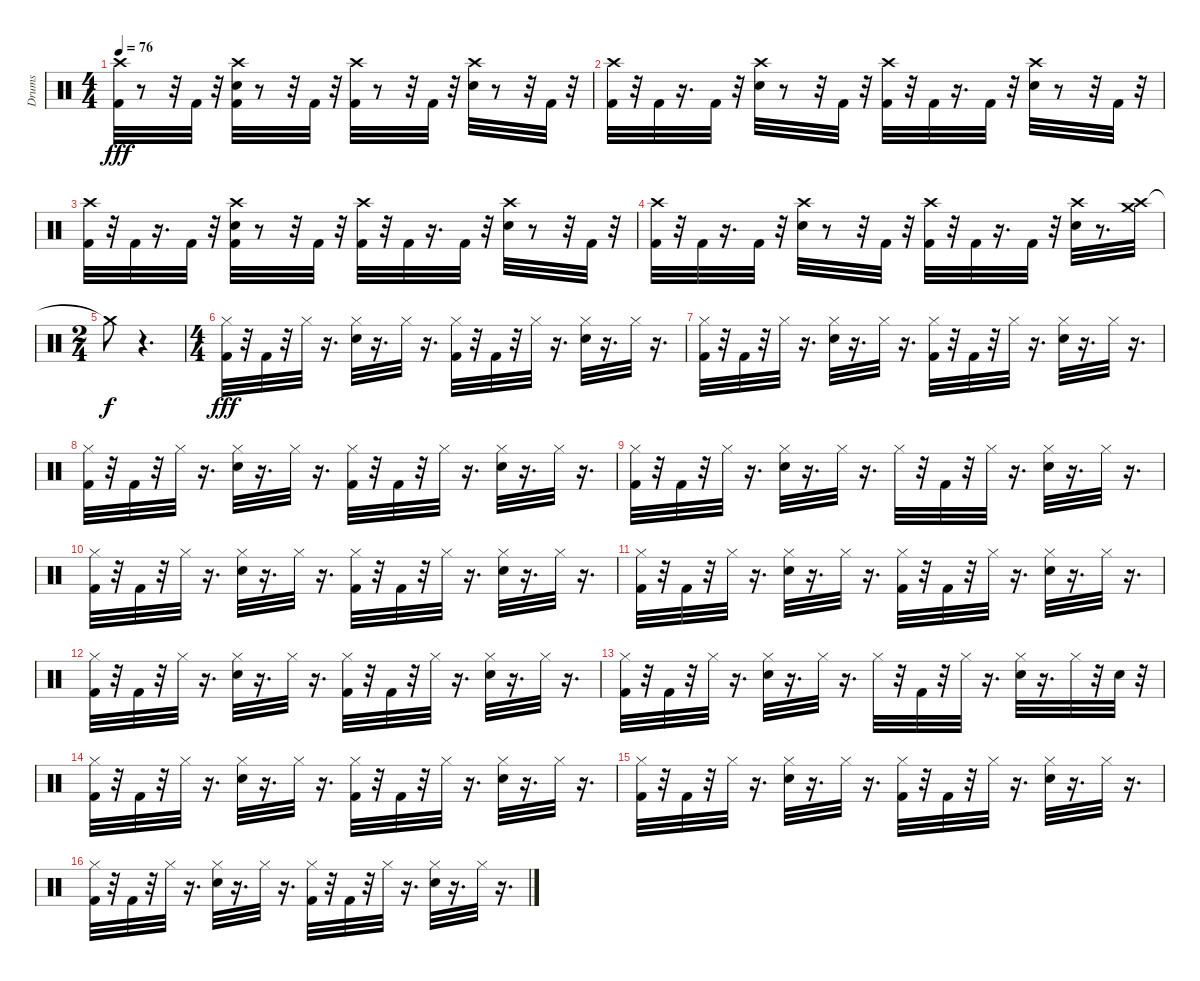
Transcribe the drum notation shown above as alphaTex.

\track ("Drums" "Drums") {instrument percussion}
\staff {score}
\articulation defaults
\ts (4 4)
\tempo 76
\clef neutral
\ks c
("Crash high (hit)" "Kick (hit) 2").32{dy fff} r.8 r.32 "Kick (hit) 2".32 r.32 ("Crash high (hit)" "Kick (hit) 2" "Electric Snare (hit)").32 r.8 r.32 "Kick (hit) 2".32 r.32 ("Crash high (hit)" "Kick (hit) 2").32 r.8 r.32 "Kick (hit) 2".32 r.32 ("Crash high (hit)" "Electric Snare (hit)").32 r.8 r.32 "Kick (hit) 2".32 r.32 |
("Crash high (hit)" "Kick (hit) 2").32 r.32 "Kick (hit) 2".32 r.16{d} "Kick (hit) 2".32 r.32 ("Crash high (hit)" "Electric Snare (hit)").32 r.8 r.32 "Kick (hit) 2".32 r.32 ("Crash high (hit)" "Kick (hit) 2").32 r.32 "Kick (hit) 2".32 r.16{d} "Kick (hit) 2".32 r.32 ("Crash high (hit)" "Electric Snare (hit)").32 r.8 r.32 "Kick (hit) 2".32 r.32 |
("Crash high (hit)" "Kick (hit) 2").32 r.32 "Kick (hit) 2".32 r.16{d} "Kick (hit) 2".32 r.32 ("Crash high (hit)" "Kick (hit) 2" "Electric Snare (hit)").32 r.8 r.32 "Kick (hit) 2".32 r.32 ("Crash high (hit)" "Kick (hit) 2").32 r.32 "Kick (hit) 2".32 r.16{d} "Kick (hit) 2".32 r.32 ("Crash high (hit)" "Electric Snare (hit)").32 r.8 r.32 "Kick (hit) 2".32 r.32 |
("Crash high (hit)" "Kick (hit) 2").32 r.32 "Kick (hit) 2".32 r.16{d} "Kick (hit) 2".32 r.32 ("Crash high (hit)" "Electric Snare (hit)").32 r.8 r.32 "Kick (hit) 2".32 r.32 ("Crash high (hit)" "Kick (hit) 2").32 r.32 "Kick (hit) 2".32 r.16{d} "Kick (hit) 2".32 r.32 ("Crash high (hit)" "Electric Snare (hit)").32 r.8{d} ("Crash high (hit)" "Crash medium (hit)").32 |
\ts (2 4)
"Crash medium (hit)"{t}.8{dy f} r.4{d} |
\ts (4 4)
("Hi-Hat (closed)" "Kick (hit) 2").32{dy fff} r.32 "Kick (hit) 2".32 r.32 "Hi-Hat (closed)".32 r.16{d} ("Hi-Hat (closed)" "Electric Snare (hit)").32 r.16{d} "Hi-Hat (closed)".32 r.16{d} ("Hi-Hat (closed)" "Kick (hit) 2").32 r.32 "Kick (hit) 2".32 r.32 "Hi-Hat (closed)".32 r.16{d} ("Hi-Hat (closed)" "Electric Snare (hit)").32 r.16{d} "Hi-Hat (closed)".32 r.16{d} |
("Kick (hit) 2" "Hi-Hat (closed)").32 r.32 "Kick (hit) 2".32 r.32 "Hi-Hat (closed)".32 r.16{d} ("Electric Snare (hit)" "Hi-Hat (closed)").32 r.16{d} "Hi-Hat (closed)".32 r.16{d} ("Kick (hit) 2" "Hi-Hat (closed)").32 r.32 "Kick (hit) 2".32 r.32 "Hi-Hat (closed)".32 r.16{d} ("Electric Snare (hit)" "Hi-Hat (closed)").32 r.16{d} "Hi-Hat (closed)".32 r.16{d} |
("Hi-Hat (closed)" "Kick (hit) 2").32 r.32 "Kick (hit) 2".32 r.32 "Hi-Hat (closed)".32 r.16{d} ("Hi-Hat (closed)" "Electric Snare (hit)").32 r.16{d} "Hi-Hat (closed)".32 r.16{d} ("Hi-Hat (closed)" "Kick (hit) 2").32 r.32 "Kick (hit) 2".32 r.32 "Hi-Hat (closed)".32 r.16{d} ("Hi-Hat (closed)" "Electric Snare (hit)").32 r.16{d} "Hi-Hat (closed)".32 r.16{d} |
("Kick (hit) 2" "Hi-Hat (closed)").32 r.32 "Kick (hit) 2".32 r.32 "Hi-Hat (closed)".32 r.16{d} ("Electric Snare (hit)" "Hi-Hat (closed)").32 r.16{d} "Hi-Hat (closed)".32 r.16{d} "Hi-Hat (closed)".32 r.32 "Kick (hit) 2".32 r.32 "Hi-Hat (closed)".32 r.16{d} ("Electric Snare (hit)" "Hi-Hat (closed)").32 r.16{d} "Hi-Hat (closed)".32 r.16{d} |
("Hi-Hat (closed)" "Kick (hit) 2").32 r.32 "Kick (hit) 2".32 r.32 "Hi-Hat (closed)".32 r.16{d} ("Hi-Hat (closed)" "Electric Snare (hit)").32 r.16{d} "Hi-Hat (closed)".32 r.16{d} ("Hi-Hat (closed)" "Kick (hit) 2").32 r.32 "Kick (hit) 2".32 r.32 "Hi-Hat (closed)".32 r.16{d} ("Hi-Hat (closed)" "Electric Snare (hit)").32 r.16{d} "Hi-Hat (closed)".32 r.16{d} |
("Kick (hit) 2" "Hi-Hat (closed)").32 r.32 "Kick (hit) 2".32 r.32 "Hi-Hat (closed)".32 r.16{d} ("Electric Snare (hit)" "Hi-Hat (closed)").32 r.16{d} "Hi-Hat (closed)".32 r.16{d} ("Kick (hit) 2" "Hi-Hat (closed)").32 r.32 "Kick (hit) 2".32 r.32 "Hi-Hat (closed)".32 r.16{d} ("Electric Snare (hit)" "Hi-Hat (closed)").32 r.16{d} "Hi-Hat (closed)".32 r.16{d} |
("Hi-Hat (closed)" "Kick (hit) 2").32 r.32 "Kick (hit) 2".32 r.32 "Hi-Hat (closed)".32 r.16{d} ("Hi-Hat (closed)" "Electric Snare (hit)").32 r.16{d} "Hi-Hat (closed)".32 r.16{d} ("Hi-Hat (closed)" "Kick (hit) 2").32 r.32 "Kick (hit) 2".32 r.32 "Hi-Hat (closed)".32 r.16{d} ("Hi-Hat (closed)" "Electric Snare (hit)").32 r.16{d} "Hi-Hat (closed)".32 r.16{d} |
("Kick (hit) 2" "Hi-Hat (closed)").32 r.32 "Kick (hit) 2".32 r.32 "Hi-Hat (closed)".32 r.16{d} ("Electric Snare (hit)" "Hi-Hat (closed)").32 r.16{d} "Hi-Hat (closed)".32 r.16{d} "Hi-Hat (closed)".32 r.32 "Kick (hit) 2".32 r.32 "Hi-Hat (closed)".32 r.16{d} ("Electric Snare (hit)" "Hi-Hat (closed)").32 r.16{d} "Hi-Hat (closed)".32 r.32 "Electric Snare (hit)".32 r.32 |
("Hi-Hat (closed)" "Kick (hit) 2").32 r.32 "Kick (hit) 2".32 r.32 "Hi-Hat (closed)".32 r.16{d} ("Hi-Hat (closed)" "Electric Snare (hit)").32 r.16{d} "Hi-Hat (closed)".32 r.16{d} ("Hi-Hat (closed)" "Kick (hit) 2").32 r.32 "Kick (hit) 2".32 r.32 "Hi-Hat (closed)".32 r.16{d} ("Hi-Hat (closed)" "Electric Snare (hit)").32 r.16{d} "Hi-Hat (closed)".32 r.16{d} |
("Kick (hit) 2" "Hi-Hat (closed)").32 r.32 "Kick (hit) 2".32 r.32 "Hi-Hat (closed)".32 r.16{d} ("Electric Snare (hit)" "Hi-Hat (closed)").32 r.16{d} "Hi-Hat (closed)".32 r.16{d} ("Kick (hit) 2" "Hi-Hat (closed)").32 r.32 "Kick (hit) 2".32 r.32 "Hi-Hat (closed)".32 r.16{d} ("Electric Snare (hit)" "Hi-Hat (closed)").32 r.16{d} "Hi-Hat (closed)".32 r.16{d} |
("Hi-Hat (closed)" "Kick (hit) 2").32 r.32 "Kick (hit) 2".32 r.32 "Hi-Hat (closed)".32 r.16{d} ("Hi-Hat (closed)" "Electric Snare (hit)").32 r.16{d} "Hi-Hat (closed)".32 r.16{d} ("Hi-Hat (closed)" "Kick (hit) 2").32 r.32 "Kick (hit) 2".32 r.32 "Hi-Hat (closed)".32 r.16{d} ("Hi-Hat (closed)" "Electric Snare (hit)").32 r.16{d} "Hi-Hat (closed)".32 r.16{d}
